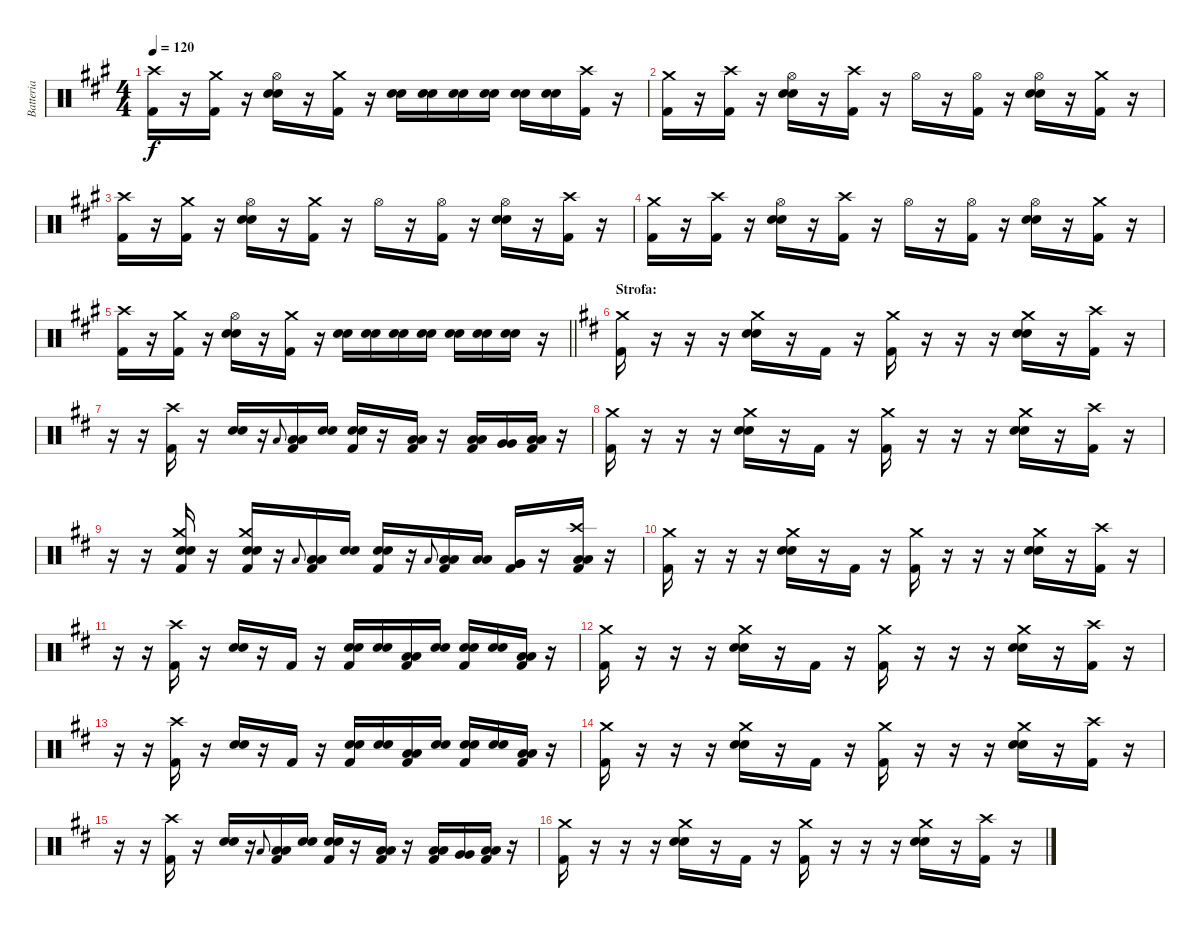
\track ("Batteria" "Batteria") {instrument percussion}
\staff {score}
\articulation defaults
\ts (4 4)
\tempo 120
\clef neutral
\ks a
("Kick (hit) 2" "Crash high (hit)").16{dy f} r.16 ("Kick (hit) 2" "Crash medium (hit)").16 r.16 ("Snare (hit) 2" "Snare (hit) 2" "Hi-Hat (open)").16 r.16 ("Kick (hit) 2" "Crash medium (hit)").16 r.16 ("Snare (hit) 2" "Snare (hit) 2").16 ("Snare (hit) 2" "Snare (hit) 2").16 ("Snare (hit) 2" "Snare (hit) 2").16 ("Snare (hit) 2" "Snare (hit) 2").16 ("Snare (hit) 2" "Snare (hit) 2").16 ("Snare (hit) 2" "Snare (hit) 2").16 ("Kick (hit) 2" "Crash high (hit)").16 r.16 |
("Kick (hit) 2" "Crash medium (hit)").16 r.16 ("Kick (hit) 2" "Crash high (hit)").16 r.16 ("Snare (hit) 2" "Snare (hit) 2" "Hi-Hat (open)").16 r.16 ("Kick (hit) 2" "Crash high (hit)").16 r.16 "Hi-Hat (open)".16 r.16 ("Kick (hit) 2" "Hi-Hat (open)").16 r.16 ("Snare (hit) 2" "Snare (hit) 2" "Hi-Hat (open)").16 r.16 ("Kick (hit) 2" "Crash medium (hit)").16 r.16 |
("Kick (hit) 2" "Crash high (hit)").16 r.16 ("Kick (hit) 2" "Crash medium (hit)").16 r.16 ("Snare (hit) 2" "Snare (hit) 2" "Hi-Hat (open)").16 r.16 ("Kick (hit) 2" "Crash medium (hit)").16 r.16 "Hi-Hat (open)".16 r.16 ("Kick (hit) 2" "Hi-Hat (open)").16 r.16 ("Snare (hit) 2" "Snare (hit) 2" "Hi-Hat (open)").16 r.16 ("Kick (hit) 2" "Crash high (hit)").16 r.16 |
("Kick (hit) 2" "Crash medium (hit)").16 r.16 ("Kick (hit) 2" "Crash high (hit)").16 r.16 ("Snare (hit) 2" "Snare (hit) 2" "Hi-Hat (open)").16 r.16 ("Kick (hit) 2" "Crash high (hit)").16 r.16 "Hi-Hat (open)".16 r.16 ("Kick (hit) 2" "Hi-Hat (open)").16 r.16 ("Snare (hit) 2" "Snare (hit) 2" "Hi-Hat (open)").16 r.16 ("Kick (hit) 2" "Crash medium (hit)").16 r.16 |
\barLineRight lightlight
("Kick (hit) 2" "Crash high (hit)").16 r.16 ("Kick (hit) 2" "Crash medium (hit)").16 r.16 ("Snare (hit) 2" "Snare (hit) 2" "Hi-Hat (open)").16 r.16 ("Kick (hit) 2" "Crash medium (hit)").16 r.16 ("Snare (hit) 2" "Snare (hit) 2").16 ("Snare (hit) 2" "Snare (hit) 2").16 ("Snare (hit) 2" "Snare (hit) 2").16 ("Snare (hit) 2" "Snare (hit) 2").16 ("Snare (hit) 2" "Snare (hit) 2").16 ("Snare (hit) 2" "Snare (hit) 2").16 ("Snare (hit) 2" "Snare (hit) 2").16 r.16 |
\section ("" "Strofa:")
\ks d
("Kick (hit) 2" "Crash medium (hit)").16 r.16 r.16 r.16 ("Snare (hit) 2" "Snare (hit) 2" "Crash medium (hit)").16 r.16 "Kick (hit) 2".16 r.16 ("Kick (hit) 2" "Crash medium (hit)").16 r.16 r.16 r.16 ("Snare (hit) 2" "Snare (hit) 2" "Crash medium (hit)").16 r.16 ("Kick (hit) 2" "Crash high (hit)").16 r.16 |
r.16 r.16 ("Kick (hit) 2" "Crash high (hit)").16 r.16 ("Snare (hit) 2" "Snare (hit) 2").16 r.16 "Low Tom (hit)".8{gr onbeat} ("Kick (hit) 2" "Low Tom (hit)" "Low Tom (hit)").16 ("Snare (hit) 2" "Snare (hit) 2").16 ("Kick (hit) 2" "Snare (hit) 2" "Snare (hit) 2").16 r.16 ("Kick (hit) 2" "Low Tom (hit)" "Low Tom (hit)").16 r.16 ("Kick (hit) 2" "Low Tom (hit)" "Low Tom (hit)").16 ("Very Low Tom (hit)" "Very Low Tom (hit)").16 ("Kick (hit) 2" "Low Floor Tom (hit)" "Low Floor Tom (hit)").16 r.16 |
("Kick (hit) 2" "Crash medium (hit)").16 r.16 r.16 r.16 ("Snare (hit) 2" "Snare (hit) 2" "Crash medium (hit)").16 r.16 "Kick (hit) 2".16 r.16 ("Kick (hit) 2" "Crash medium (hit)").16 r.16 r.16 r.16 ("Snare (hit) 2" "Snare (hit) 2" "Crash medium (hit)").16 r.16 ("Kick (hit) 2" "Crash high (hit)").16 r.16 |
r.16 r.16 ("Kick (hit) 2" "Snare (hit) 2" "Snare (hit) 2" "Crash medium (hit)").16 r.16 ("Kick (hit) 2" "Snare (hit) 2" "Snare (hit) 2" "Crash medium (hit)").16 r.16 "Low Tom (hit)".8{gr onbeat} ("Kick (hit) 2" "Low Tom (hit)" "Low Tom (hit)").16 ("Snare (hit) 2" "Snare (hit) 2").16 ("Kick (hit) 2" "Snare (hit) 2" "Snare (hit) 2").16 r.16 "Low Tom (hit)".8{gr onbeat} ("Kick (hit) 2" "Low Tom (hit)" "Low Tom (hit)").16 ("Low Tom (hit)" "Low Tom (hit)").16 ("Kick (hit) 2" "Very Low Tom (hit)" "Very Low Tom (hit)").16 r.16 ("Kick (hit) 2" "Low Floor Tom (hit)" "Low Floor Tom (hit)" "Crash high (hit)").16 r.16 |
("Kick (hit) 2" "Crash medium (hit)").16 r.16 r.16 r.16 ("Snare (hit) 2" "Snare (hit) 2" "Crash medium (hit)").16 r.16 "Kick (hit) 2".16 r.16 ("Kick (hit) 2" "Crash medium (hit)").16 r.16 r.16 r.16 ("Snare (hit) 2" "Snare (hit) 2" "Crash medium (hit)").16 r.16 ("Kick (hit) 2" "Crash high (hit)").16 r.16 |
r.16 r.16 ("Kick (hit) 2" "Crash high (hit)").16 r.16 ("Snare (hit) 2" "Snare (hit) 2").16 r.16 "Kick (hit) 2".16 r.16 ("Kick (hit) 2" "Snare (hit) 2" "Snare (hit) 2").16 ("Snare (hit) 2" "Snare (hit) 2").16 ("Kick (hit) 2" "Low Tom (hit)" "Low Tom (hit)").16 ("Snare (hit) 2" "Snare (hit) 2").16 ("Kick (hit) 2" "Snare (hit) 2" "Snare (hit) 2").16 ("Snare (hit) 2" "Snare (hit) 2").16 ("Kick (hit) 2" "Low Tom (hit)" "Low Tom (hit)").16 r.16 |
("Kick (hit) 2" "Crash medium (hit)").16 r.16 r.16 r.16 ("Snare (hit) 2" "Snare (hit) 2" "Crash medium (hit)").16 r.16 "Kick (hit) 2".16 r.16 ("Kick (hit) 2" "Crash medium (hit)").16 r.16 r.16 r.16 ("Snare (hit) 2" "Snare (hit) 2" "Crash medium (hit)").16 r.16 ("Kick (hit) 2" "Crash high (hit)").16 r.16 |
r.16 r.16 ("Kick (hit) 2" "Crash high (hit)").16 r.16 ("Snare (hit) 2" "Snare (hit) 2").16 r.16 "Kick (hit) 2".16 r.16 ("Kick (hit) 2" "Snare (hit) 2" "Snare (hit) 2").16 ("Snare (hit) 2" "Snare (hit) 2").16 ("Kick (hit) 2" "Low Tom (hit)" "Low Tom (hit)").16 ("Snare (hit) 2" "Snare (hit) 2").16 ("Kick (hit) 2" "Snare (hit) 2" "Snare (hit) 2").16 ("Snare (hit) 2" "Snare (hit) 2").16 ("Kick (hit) 2" "Low Tom (hit)" "Low Tom (hit)").16 r.16 |
("Kick (hit) 2" "Crash medium (hit)").16 r.16 r.16 r.16 ("Snare (hit) 2" "Snare (hit) 2" "Crash medium (hit)").16 r.16 "Kick (hit) 2".16 r.16 ("Kick (hit) 2" "Crash medium (hit)").16 r.16 r.16 r.16 ("Snare (hit) 2" "Snare (hit) 2" "Crash medium (hit)").16 r.16 ("Kick (hit) 2" "Crash high (hit)").16 r.16 |
r.16 r.16 ("Kick (hit) 2" "Crash high (hit)").16 r.16 ("Snare (hit) 2" "Snare (hit) 2").16 r.16 "Low Tom (hit)".8{gr onbeat} ("Kick (hit) 2" "Low Tom (hit)" "Low Tom (hit)").16 ("Snare (hit) 2" "Snare (hit) 2").16 ("Kick (hit) 2" "Snare (hit) 2" "Snare (hit) 2").16 r.16 ("Kick (hit) 2" "Low Tom (hit)" "Low Tom (hit)").16 r.16 ("Kick (hit) 2" "Low Tom (hit)" "Low Tom (hit)").16 ("Very Low Tom (hit)" "Very Low Tom (hit)").16 ("Kick (hit) 2" "Low Floor Tom (hit)" "Low Floor Tom (hit)").16 r.16 |
("Kick (hit) 2" "Crash medium (hit)").16 r.16 r.16 r.16 ("Snare (hit) 2" "Snare (hit) 2" "Crash medium (hit)").16 r.16 "Kick (hit) 2".16 r.16 ("Kick (hit) 2" "Crash medium (hit)").16 r.16 r.16 r.16 ("Snare (hit) 2" "Snare (hit) 2" "Crash medium (hit)").16 r.16 ("Kick (hit) 2" "Crash high (hit)").16 r.16
